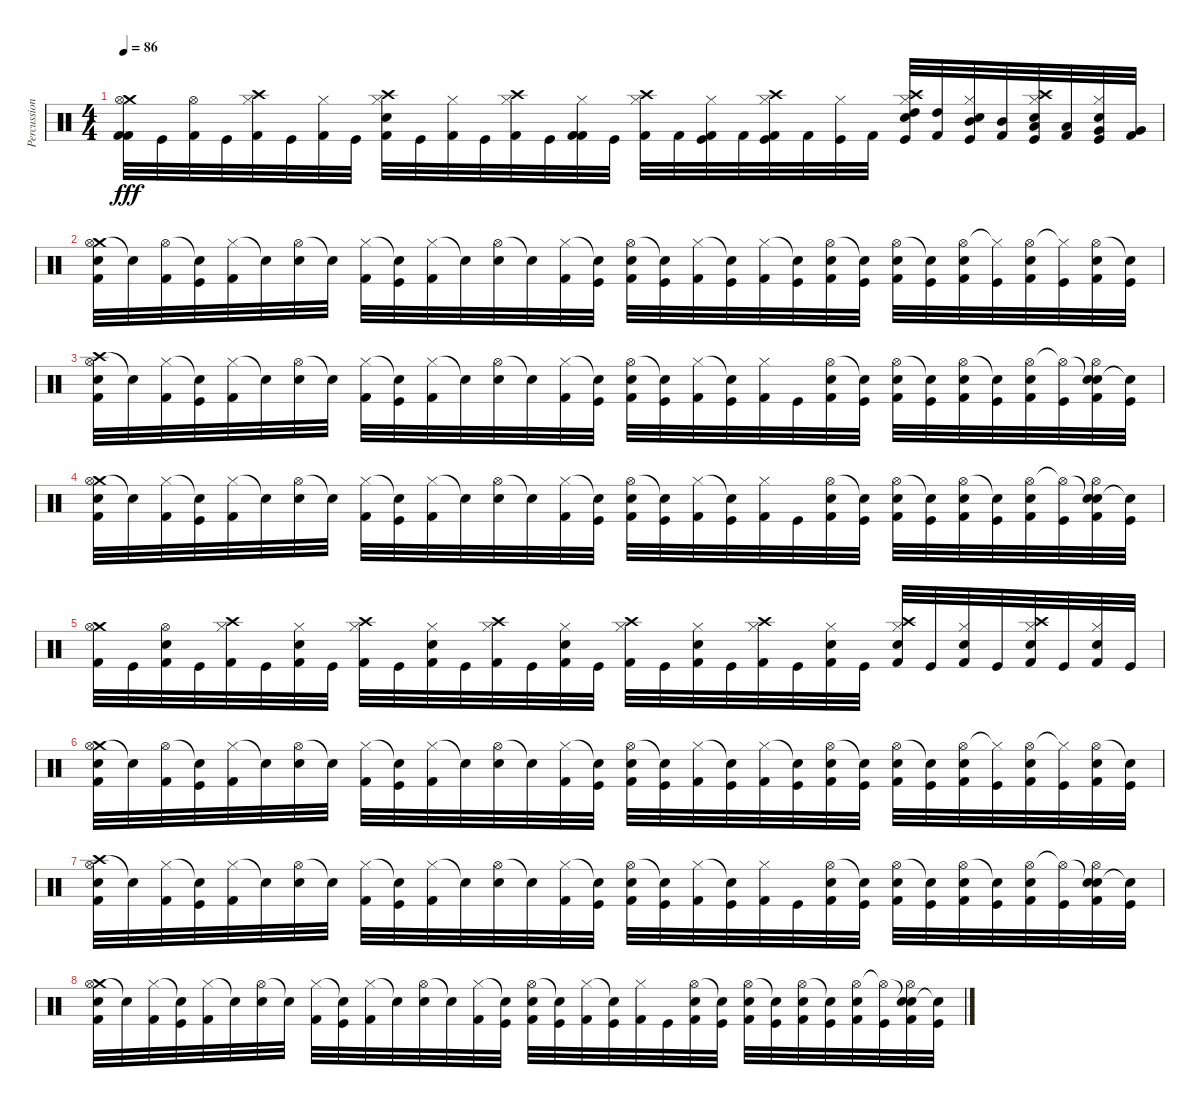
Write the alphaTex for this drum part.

\track ("Percussion" "Percussion") {instrument percussion}
\staff {score}
\articulation defaults
\ts (4 4)
\tempo 86
\clef neutral
\ks c
("Crash medium (hit)" "Hi-Hat (open)" "Kick (hit) 2" "Kick (hit) 2").32{dy fff} "Kick (hit)".32 ("Hi-Hat (open)" "Kick (hit) 2").32 "Kick (hit)".32 ("Crash high (hit)" "Hi-Hat (closed)" "Kick (hit) 2").32 "Kick (hit)".32 ("Hi-Hat (closed)" "Kick (hit) 2").32 "Kick (hit)".32 ("Crash high (hit)" "Hi-Hat (closed)" "Electric Snare (hit)" "Kick (hit) 2").32 "Kick (hit)".32 ("Hi-Hat (closed)" "Kick (hit) 2").32 "Kick (hit)".32 ("Crash high (hit)" "Hi-Hat (closed)" "Kick (hit) 2").32 "Kick (hit)".32 ("Hi-Hat (closed)" "Kick (hit) 2" "Kick (hit) 2").32 "Kick (hit)".32 ("Crash high (hit)" "Hi-Hat (closed)" "Kick (hit) 2").32 "Kick (hit) 2".32 ("Hi-Hat (closed)" "Kick (hit) 2" "Kick (hit)").32 "Kick (hit) 2".32 ("Crash high (hit)" "Hi-Hat (closed)" "Kick (hit) 2" "Kick (hit)").32 "Kick (hit) 2".32 ("Hi-Hat (closed)" "Kick (hit)").32 "Kick (hit) 2".32 ("Crash high (hit)" "Hi-Hat (closed)" "High Tom (hit)" "Electric Snare (hit)" "Kick (hit)").32 ("High Tom (hit)" "Kick (hit) 2").32 ("Hi-Hat (closed)" "Mid Tom (hit)" "Electric Snare (hit)" "Kick (hit)").32 ("Mid Tom (hit)" "Kick (hit) 2").32 ("Crash high (hit)" "Hi-Hat (closed)" "Low Tom (hit)" "Electric Snare (hit)" "Kick (hit)").32 ("Low Tom (hit)" "Kick (hit) 2").32 ("Hi-Hat (closed)" "Very Low Tom (hit)" "Electric Snare (hit)" "Kick (hit)").32 ("Very Low Tom (hit)" "Kick (hit) 2").32 |
("Crash medium (hit)" "Hi-Hat (open)" "Electric Snare (hit)" "Kick (hit) 2").32 "Snare (hit)"{t}.32 ("Hi-Hat (open)" "Kick (hit) 2").32 ("Snare (hit)"{t} "Kick (hit)").32 ("Hi-Hat (closed)" "Kick (hit) 2").32 "Snare (hit)"{t}.32 ("Hi-Hat (open)" "Electric Snare (hit)").32 "Snare (hit)"{t}.32 ("Hi-Hat (closed)" "Kick (hit) 2").32 ("Snare (hit)"{t} "Kick (hit)").32 ("Hi-Hat (closed)" "Kick (hit) 2").32 "Snare (hit)"{t}.32 ("Hi-Hat (open)" "Electric Snare (hit)").32 "Snare (hit)"{t}.32 ("Hi-Hat (closed)" "Kick (hit) 2").32 ("Snare (hit)"{t} "Kick (hit)").32 ("Hi-Hat (open)" "Electric Snare (hit)" "Kick (hit) 2").32 ("Snare (hit)"{t} "Kick (hit)").32 ("Hi-Hat (closed)" "Kick (hit) 2").32 ("Snare (hit)"{t} "Kick (hit)").32 ("Hi-Hat (closed)" "Kick (hit) 2").32 ("Snare (hit)"{t} "Kick (hit)").32 ("Hi-Hat (open)" "Electric Snare (hit)" "Kick (hit) 2").32 ("Snare (hit)"{t} "Kick (hit)").32 ("Hi-Hat (open)" "Electric Snare (hit)" "Kick (hit) 2").32 ("Snare (hit)"{t} "Kick (hit)").32 ("Hi-Hat (open)" "Electric Snare (hit)" "Kick (hit) 2").32 ("Hi-Hat (closed)"{t} "Kick (hit)").32 ("Hi-Hat (open)" "Electric Snare (hit)" "Kick (hit) 2").32 ("Hi-Hat (closed)"{t} "Kick (hit)").32 ("Hi-Hat (open)" "Electric Snare (hit)" "Kick (hit) 2").32 ("Snare (hit)"{t} "Kick (hit)").32 |
("Crash high (hit)" "Hi-Hat (open)" "Electric Snare (hit)" "Kick (hit) 2").32 "Snare (hit)"{t}.32 ("Hi-Hat (closed)" "Kick (hit) 2").32 ("Snare (hit)"{t} "Kick (hit)").32 ("Hi-Hat (closed)" "Kick (hit) 2").32 "Snare (hit)"{t}.32 ("Hi-Hat (open)" "Electric Snare (hit)").32 "Snare (hit)"{t}.32 ("Hi-Hat (closed)" "Kick (hit) 2").32 ("Snare (hit)"{t} "Kick (hit)").32 ("Hi-Hat (closed)" "Kick (hit) 2").32 "Snare (hit)"{t}.32 ("Hi-Hat (open)" "Electric Snare (hit)").32 "Snare (hit)"{t}.32 ("Hi-Hat (closed)" "Kick (hit) 2").32 ("Snare (hit)"{t} "Kick (hit)").32 ("Hi-Hat (open)" "Electric Snare (hit)" "Kick (hit) 2").32 ("Snare (hit)"{t} "Kick (hit)").32 ("Hi-Hat (closed)" "Kick (hit) 2").32 ("Snare (hit)"{t} "Kick (hit)").32 ("Hi-Hat (closed)" "Kick (hit) 2").32 "Kick (hit)".32 ("Hi-Hat (open)" "Electric Snare (hit)" "Kick (hit) 2").32 ("Snare (hit)"{t} "Kick (hit)").32 ("Hi-Hat (open)" "Electric Snare (hit)" "Kick (hit) 2").32 ("Snare (hit)"{t} "Kick (hit)").32 ("Hi-Hat (open)" "Electric Snare (hit)" "Kick (hit) 2").32 ("Snare (hit)"{t} "Kick (hit)").32 ("Hi-Hat (open)" "Electric Snare (hit)" "Kick (hit) 2").32 ("Hi-Hat (open)"{t} "Kick (hit)").32 ("Snare (hit)"{t} "Hi-Hat (open)" "Electric Snare (hit)" "Kick (hit) 2").32 ("Snare (hit)"{t} "Kick (hit)").32 |
("Crash medium (hit)" "Hi-Hat (open)" "Electric Snare (hit)" "Kick (hit) 2").32 "Snare (hit)"{t}.32 ("Hi-Hat (closed)" "Kick (hit) 2").32 ("Snare (hit)"{t} "Kick (hit)").32 ("Hi-Hat (closed)" "Kick (hit) 2").32 "Snare (hit)"{t}.32 ("Hi-Hat (open)" "Electric Snare (hit)").32 "Snare (hit)"{t}.32 ("Hi-Hat (closed)" "Kick (hit) 2").32 ("Snare (hit)"{t} "Kick (hit)").32 ("Hi-Hat (closed)" "Kick (hit) 2").32 "Snare (hit)"{t}.32 ("Hi-Hat (open)" "Electric Snare (hit)").32 "Snare (hit)"{t}.32 ("Hi-Hat (closed)" "Kick (hit) 2").32 ("Snare (hit)"{t} "Kick (hit)").32 ("Hi-Hat (open)" "Electric Snare (hit)" "Kick (hit) 2").32 ("Snare (hit)"{t} "Kick (hit)").32 ("Hi-Hat (closed)" "Kick (hit) 2").32 ("Snare (hit)"{t} "Kick (hit)").32 ("Hi-Hat (closed)" "Kick (hit) 2").32 "Kick (hit)".32 ("Hi-Hat (open)" "Electric Snare (hit)" "Kick (hit) 2").32 ("Snare (hit)"{t} "Kick (hit)").32 ("Hi-Hat (open)" "Electric Snare (hit)" "Kick (hit) 2").32 ("Snare (hit)"{t} "Kick (hit)").32 ("Hi-Hat (open)" "Electric Snare (hit)" "Kick (hit) 2").32 ("Snare (hit)"{t} "Kick (hit)").32 ("Hi-Hat (open)" "Electric Snare (hit)" "Kick (hit) 2").32 ("Hi-Hat (open)"{t} "Kick (hit)").32 ("Snare (hit)"{t} "Hi-Hat (open)" "Electric Snare (hit)" "Kick (hit) 2").32 ("Snare (hit)"{t} "Kick (hit)").32 |
("Crash medium (hit)" "Hi-Hat (open)" "Kick (hit) 2").32 "Kick (hit)".32 ("Hi-Hat (open)" "Electric Snare (hit)" "Kick (hit) 2").32 "Kick (hit)".32 ("Crash high (hit)" "Hi-Hat (closed)" "Kick (hit) 2").32 "Kick (hit)".32 ("Hi-Hat (closed)" "Electric Snare (hit)" "Kick (hit) 2").32 "Kick (hit)".32 ("Crash high (hit)" "Hi-Hat (closed)" "Kick (hit) 2").32 "Kick (hit)".32 ("Hi-Hat (closed)" "Electric Snare (hit)" "Kick (hit) 2").32 "Kick (hit)".32 ("Crash high (hit)" "Hi-Hat (closed)" "Kick (hit) 2").32 "Kick (hit)".32 ("Hi-Hat (closed)" "Electric Snare (hit)" "Kick (hit) 2").32 "Kick (hit)".32 ("Crash high (hit)" "Hi-Hat (closed)" "Kick (hit) 2").32 "Kick (hit)".32 ("Hi-Hat (closed)" "Electric Snare (hit)" "Kick (hit) 2").32 "Kick (hit)".32 ("Crash high (hit)" "Hi-Hat (closed)" "Kick (hit) 2").32 "Kick (hit)".32 ("Hi-Hat (closed)" "Electric Snare (hit)" "Kick (hit) 2").32 "Kick (hit)".32 ("Crash high (hit)" "Hi-Hat (closed)" "Electric Snare (hit)" "Kick (hit) 2").32 "Kick (hit)".32 ("Hi-Hat (closed)" "Electric Snare (hit)" "Kick (hit) 2").32 "Kick (hit)".32 ("Crash high (hit)" "Hi-Hat (closed)" "Electric Snare (hit)" "Kick (hit) 2").32 "Kick (hit)".32 ("Hi-Hat (closed)" "Electric Snare (hit)" "Kick (hit) 2").32 "Kick (hit)".32 |
("Crash medium (hit)" "Hi-Hat (open)" "Electric Snare (hit)" "Kick (hit) 2").32 "Snare (hit)"{t}.32 ("Hi-Hat (open)" "Kick (hit) 2").32 ("Snare (hit)"{t} "Kick (hit)").32 ("Hi-Hat (closed)" "Kick (hit) 2").32 "Snare (hit)"{t}.32 ("Hi-Hat (open)" "Electric Snare (hit)").32 "Snare (hit)"{t}.32 ("Hi-Hat (closed)" "Kick (hit) 2").32 ("Snare (hit)"{t} "Kick (hit)").32 ("Hi-Hat (closed)" "Kick (hit) 2").32 "Snare (hit)"{t}.32 ("Hi-Hat (open)" "Electric Snare (hit)").32 "Snare (hit)"{t}.32 ("Hi-Hat (closed)" "Kick (hit) 2").32 ("Snare (hit)"{t} "Kick (hit)").32 ("Hi-Hat (open)" "Electric Snare (hit)" "Kick (hit) 2").32 ("Snare (hit)"{t} "Kick (hit)").32 ("Hi-Hat (closed)" "Kick (hit) 2").32 ("Snare (hit)"{t} "Kick (hit)").32 ("Hi-Hat (closed)" "Kick (hit) 2").32 ("Snare (hit)"{t} "Kick (hit)").32 ("Hi-Hat (open)" "Electric Snare (hit)" "Kick (hit) 2").32 ("Snare (hit)"{t} "Kick (hit)").32 ("Hi-Hat (open)" "Electric Snare (hit)" "Kick (hit) 2").32 ("Snare (hit)"{t} "Kick (hit)").32 ("Hi-Hat (open)" "Electric Snare (hit)" "Kick (hit) 2").32 ("Hi-Hat (closed)"{t} "Kick (hit)").32 ("Hi-Hat (open)" "Electric Snare (hit)" "Kick (hit) 2").32 ("Hi-Hat (closed)"{t} "Kick (hit)").32 ("Hi-Hat (open)" "Electric Snare (hit)" "Kick (hit) 2").32 ("Snare (hit)"{t} "Kick (hit)").32 |
("Crash high (hit)" "Hi-Hat (open)" "Electric Snare (hit)" "Kick (hit) 2").32 "Snare (hit)"{t}.32 ("Hi-Hat (closed)" "Kick (hit) 2").32 ("Snare (hit)"{t} "Kick (hit)").32 ("Hi-Hat (closed)" "Kick (hit) 2").32 "Snare (hit)"{t}.32 ("Hi-Hat (open)" "Electric Snare (hit)").32 "Snare (hit)"{t}.32 ("Hi-Hat (closed)" "Kick (hit) 2").32 ("Snare (hit)"{t} "Kick (hit)").32 ("Hi-Hat (closed)" "Kick (hit) 2").32 "Snare (hit)"{t}.32 ("Hi-Hat (open)" "Electric Snare (hit)").32 "Snare (hit)"{t}.32 ("Hi-Hat (closed)" "Kick (hit) 2").32 ("Snare (hit)"{t} "Kick (hit)").32 ("Hi-Hat (open)" "Electric Snare (hit)" "Kick (hit) 2").32 ("Snare (hit)"{t} "Kick (hit)").32 ("Hi-Hat (closed)" "Kick (hit) 2").32 ("Snare (hit)"{t} "Kick (hit)").32 ("Hi-Hat (closed)" "Kick (hit) 2").32 "Kick (hit)".32 ("Hi-Hat (open)" "Electric Snare (hit)" "Kick (hit) 2").32 ("Snare (hit)"{t} "Kick (hit)").32 ("Hi-Hat (open)" "Electric Snare (hit)" "Kick (hit) 2").32 ("Snare (hit)"{t} "Kick (hit)").32 ("Hi-Hat (open)" "Electric Snare (hit)" "Kick (hit) 2").32 ("Snare (hit)"{t} "Kick (hit)").32 ("Hi-Hat (open)" "Electric Snare (hit)" "Kick (hit) 2").32 ("Hi-Hat (open)"{t} "Kick (hit)").32 ("Snare (hit)"{t} "Hi-Hat (open)" "Electric Snare (hit)" "Kick (hit) 2").32 ("Snare (hit)"{t} "Kick (hit)").32 |
("Crash medium (hit)" "Hi-Hat (open)" "Electric Snare (hit)" "Kick (hit) 2").32 "Snare (hit)"{t}.32 ("Hi-Hat (closed)" "Kick (hit) 2").32 ("Snare (hit)"{t} "Kick (hit)").32 ("Hi-Hat (closed)" "Kick (hit) 2").32 "Snare (hit)"{t}.32 ("Hi-Hat (open)" "Electric Snare (hit)").32 "Snare (hit)"{t}.32 ("Hi-Hat (closed)" "Kick (hit) 2").32 ("Snare (hit)"{t} "Kick (hit)").32 ("Hi-Hat (closed)" "Kick (hit) 2").32 "Snare (hit)"{t}.32 ("Hi-Hat (open)" "Electric Snare (hit)").32 "Snare (hit)"{t}.32 ("Hi-Hat (closed)" "Kick (hit) 2").32 ("Snare (hit)"{t} "Kick (hit)").32 ("Hi-Hat (open)" "Electric Snare (hit)" "Kick (hit) 2").32 ("Snare (hit)"{t} "Kick (hit)").32 ("Hi-Hat (closed)" "Kick (hit) 2").32 ("Snare (hit)"{t} "Kick (hit)").32 ("Hi-Hat (closed)" "Kick (hit) 2").32 "Kick (hit)".32 ("Hi-Hat (open)" "Electric Snare (hit)" "Kick (hit) 2").32 ("Snare (hit)"{t} "Kick (hit)").32 ("Hi-Hat (open)" "Electric Snare (hit)" "Kick (hit) 2").32 ("Snare (hit)"{t} "Kick (hit)").32 ("Hi-Hat (open)" "Electric Snare (hit)" "Kick (hit) 2").32 ("Snare (hit)"{t} "Kick (hit)").32 ("Hi-Hat (open)" "Electric Snare (hit)" "Kick (hit) 2").32 ("Hi-Hat (open)"{t} "Kick (hit)").32 ("Snare (hit)"{t} "Hi-Hat (open)" "Electric Snare (hit)" "Kick (hit) 2").32 ("Snare (hit)"{t} "Kick (hit)").32
